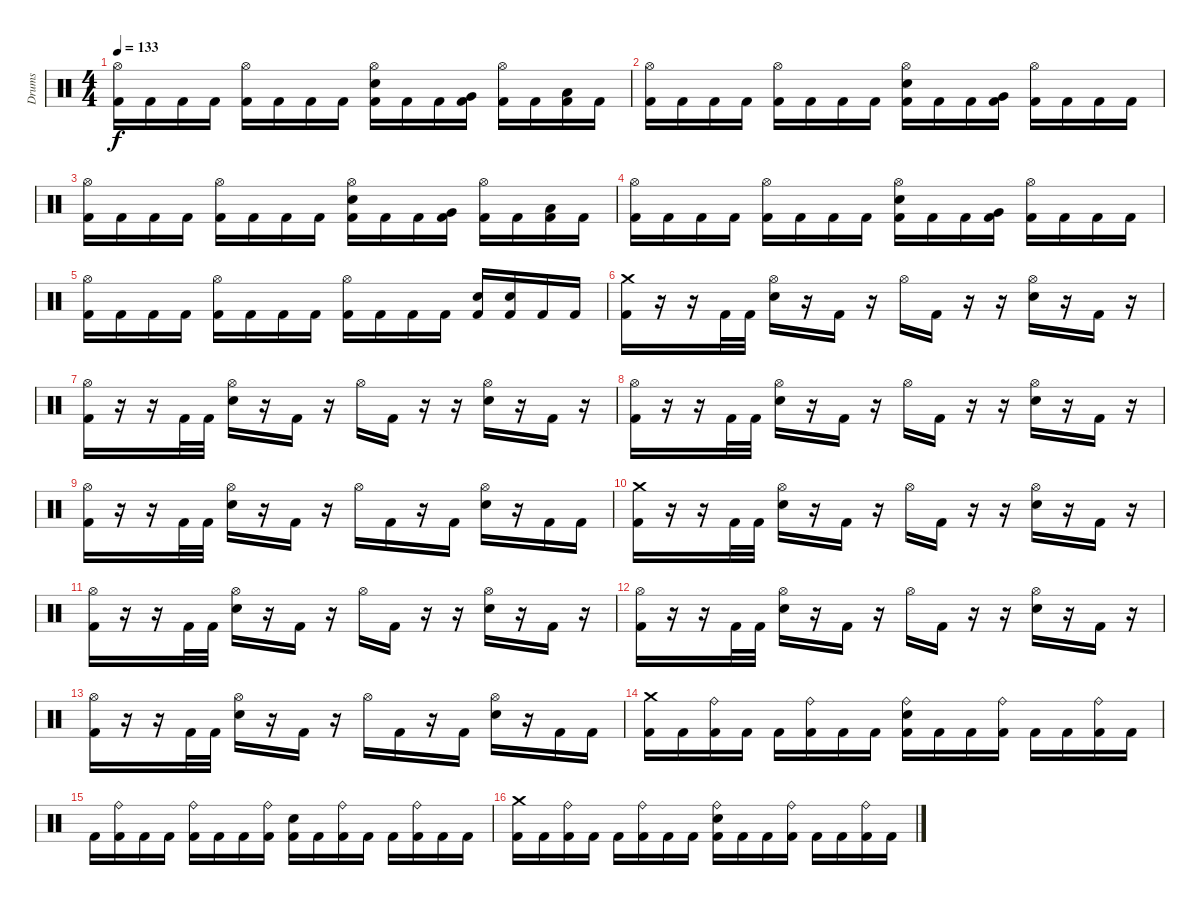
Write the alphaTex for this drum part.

\track ("Drums" "Drums") {instrument percussion}
\staff {score}
\articulation defaults
\ts (4 4)
\tempo 133
\clef neutral
\ks c
("Hi-Hat (open)" "Kick (hit) 2").16{dy f} "Kick (hit) 2".16 "Kick (hit) 2".16 "Kick (hit) 2".16 ("Hi-Hat (open)" "Kick (hit) 2").16 "Kick (hit) 2".16 "Kick (hit) 2".16 "Kick (hit) 2".16 ("Hi-Hat (open)" "Electric Snare (hit)" "Kick (hit) 2").16 "Kick (hit) 2".16 "Kick (hit) 2".16 ("Very Low Tom (hit)" "Kick (hit) 2").16 ("Hi-Hat (open)" "Kick (hit) 2").16 "Kick (hit) 2".16 ("Low Floor Tom (hit)" "Kick (hit) 2").16 "Kick (hit) 2".16 |
("Hi-Hat (open)" "Kick (hit) 2").16 "Kick (hit) 2".16 "Kick (hit) 2".16 "Kick (hit) 2".16 ("Hi-Hat (open)" "Kick (hit) 2").16 "Kick (hit) 2".16 "Kick (hit) 2".16 "Kick (hit) 2".16 ("Hi-Hat (open)" "Electric Snare (hit)" "Kick (hit) 2").16 "Kick (hit) 2".16 "Kick (hit) 2".16 ("Very Low Tom (hit)" "Kick (hit) 2").16 ("Hi-Hat (open)" "Kick (hit) 2").16 "Kick (hit) 2".16 "Kick (hit) 2".16 "Kick (hit) 2".16 |
("Hi-Hat (open)" "Kick (hit) 2").16 "Kick (hit) 2".16 "Kick (hit) 2".16 "Kick (hit) 2".16 ("Hi-Hat (open)" "Kick (hit) 2").16 "Kick (hit) 2".16 "Kick (hit) 2".16 "Kick (hit) 2".16 ("Hi-Hat (open)" "Electric Snare (hit)" "Kick (hit) 2").16 "Kick (hit) 2".16 "Kick (hit) 2".16 ("Very Low Tom (hit)" "Kick (hit) 2").16 ("Hi-Hat (open)" "Kick (hit) 2").16 "Kick (hit) 2".16 ("Low Floor Tom (hit)" "Kick (hit) 2").16 "Kick (hit) 2".16 |
("Hi-Hat (open)" "Kick (hit) 2").16 "Kick (hit) 2".16 "Kick (hit) 2".16 "Kick (hit) 2".16 ("Hi-Hat (open)" "Kick (hit) 2").16 "Kick (hit) 2".16 "Kick (hit) 2".16 "Kick (hit) 2".16 ("Hi-Hat (open)" "Electric Snare (hit)" "Kick (hit) 2").16 "Kick (hit) 2".16 "Kick (hit) 2".16 ("Very Low Tom (hit)" "Kick (hit) 2").16 ("Hi-Hat (open)" "Kick (hit) 2").16 "Kick (hit) 2".16 "Kick (hit) 2".16 "Kick (hit) 2".16 |
("Hi-Hat (open)" "Kick (hit) 2").16 "Kick (hit) 2".16 "Kick (hit) 2".16 "Kick (hit) 2".16 ("Hi-Hat (open)" "Kick (hit) 2").16 "Kick (hit) 2".16 "Kick (hit) 2".16 "Kick (hit) 2".16 ("Hi-Hat (open)" "Kick (hit) 2").16 "Kick (hit) 2".16 "Kick (hit) 2".16 "Kick (hit) 2".16 ("Electric Snare (hit)" "Kick (hit) 2").16 ("Electric Snare (hit)" "Kick (hit) 2").16 "Kick (hit) 2".16 "Kick (hit) 2".16 |
\section ("" "")
("Crash medium (hit)" "Kick (hit) 2").16 r.16 r.16 "Kick (hit) 2".32 "Kick (hit) 2".32 ("Hi-Hat (open)" "Electric Snare (hit)").16 r.16 "Kick (hit) 2".16 r.16 "Hi-Hat (open)".16 "Kick (hit) 2".16 r.16 r.16 ("Hi-Hat (open)" "Electric Snare (hit)").16 r.16 "Kick (hit) 2".16 r.16 |
("Hi-Hat (open)" "Kick (hit) 2").16 r.16 r.16 "Kick (hit) 2".32 "Kick (hit) 2".32 ("Hi-Hat (open)" "Electric Snare (hit)").16 r.16 "Kick (hit) 2".16 r.16 "Hi-Hat (open)".16 "Kick (hit) 2".16 r.16 r.16 ("Hi-Hat (open)" "Electric Snare (hit)").16 r.16 "Kick (hit) 2".16 r.16 |
("Hi-Hat (open)" "Kick (hit) 2").16 r.16 r.16 "Kick (hit) 2".32 "Kick (hit) 2".32 ("Hi-Hat (open)" "Electric Snare (hit)").16 r.16 "Kick (hit) 2".16 r.16 "Hi-Hat (open)".16 "Kick (hit) 2".16 r.16 r.16 ("Hi-Hat (open)" "Electric Snare (hit)").16 r.16 "Kick (hit) 2".16 r.16 |
("Hi-Hat (open)" "Kick (hit) 2").16 r.16 r.16 "Kick (hit) 2".32 "Kick (hit) 2".32 ("Hi-Hat (open)" "Electric Snare (hit)").16 r.16 "Kick (hit) 2".16 r.16 "Hi-Hat (open)".16 "Kick (hit) 2".16 r.16 "Kick (hit) 2".16 ("Hi-Hat (open)" "Electric Snare (hit)").16 r.16 "Kick (hit) 2".16 "Kick (hit) 2".16 |
("Crash medium (hit)" "Kick (hit) 2").16 r.16 r.16 "Kick (hit) 2".32 "Kick (hit) 2".32 ("Hi-Hat (open)" "Electric Snare (hit)").16 r.16 "Kick (hit) 2".16 r.16 "Hi-Hat (open)".16 "Kick (hit) 2".16 r.16 r.16 ("Hi-Hat (open)" "Electric Snare (hit)").16 r.16 "Kick (hit) 2".16 r.16 |
("Hi-Hat (open)" "Kick (hit) 2").16 r.16 r.16 "Kick (hit) 2".32 "Kick (hit) 2".32 ("Hi-Hat (open)" "Electric Snare (hit)").16 r.16 "Kick (hit) 2".16 r.16 "Hi-Hat (open)".16 "Kick (hit) 2".16 r.16 r.16 ("Hi-Hat (open)" "Electric Snare (hit)").16 r.16 "Kick (hit) 2".16 r.16 |
("Hi-Hat (open)" "Kick (hit) 2").16 r.16 r.16 "Kick (hit) 2".32 "Kick (hit) 2".32 ("Hi-Hat (open)" "Electric Snare (hit)").16 r.16 "Kick (hit) 2".16 r.16 "Hi-Hat (open)".16 "Kick (hit) 2".16 r.16 r.16 ("Hi-Hat (open)" "Electric Snare (hit)").16 r.16 "Kick (hit) 2".16 r.16 |
("Hi-Hat (open)" "Kick (hit) 2").16 r.16 r.16 "Kick (hit) 2".32 "Kick (hit) 2".32 ("Hi-Hat (open)" "Electric Snare (hit)").16 r.16 "Kick (hit) 2".16 r.16 "Hi-Hat (open)".16 "Kick (hit) 2".16 r.16 "Kick (hit) 2".16 ("Hi-Hat (open)" "Electric Snare (hit)").16 r.16 "Kick (hit) 2".16 "Kick (hit) 2".16 |
\section ("" "")
("Crash medium (hit)" "Kick (hit) 2").16 "Kick (hit) 2".16 ("Ride (bell)" "Kick (hit) 2").16 "Kick (hit) 2".16 "Kick (hit) 2".16 ("Ride (bell)" "Kick (hit) 2").16 "Kick (hit) 2".16 "Kick (hit) 2".16 ("Ride (bell)" "Electric Snare (hit)" "Kick (hit) 2").16 "Kick (hit) 2".16 "Kick (hit) 2".16 ("Ride (bell)" "Kick (hit) 2").16 "Kick (hit) 2".16 "Kick (hit) 2".16 ("Ride (bell)" "Kick (hit) 2").16 "Kick (hit) 2".16 |
"Kick (hit) 2".16 ("Ride (bell)" "Kick (hit) 2").16 "Kick (hit) 2".16 "Kick (hit) 2".16 ("Ride (bell)" "Kick (hit) 2").16 "Kick (hit) 2".16 "Kick (hit) 2".16 ("Ride (bell)" "Kick (hit) 2").16 ("Electric Snare (hit)" "Kick (hit) 2").16 "Kick (hit) 2".16 ("Ride (bell)" "Kick (hit) 2").16 "Kick (hit) 2".16 "Kick (hit) 2".16 ("Ride (bell)" "Kick (hit) 2").16 "Kick (hit) 2".16 "Kick (hit) 2".16 |
("Crash medium (hit)" "Kick (hit) 2").16 "Kick (hit) 2".16 ("Ride (bell)" "Kick (hit) 2").16 "Kick (hit) 2".16 "Kick (hit) 2".16 ("Ride (bell)" "Kick (hit) 2").16 "Kick (hit) 2".16 "Kick (hit) 2".16 ("Ride (bell)" "Electric Snare (hit)" "Kick (hit) 2").16 "Kick (hit) 2".16 "Kick (hit) 2".16 ("Ride (bell)" "Kick (hit) 2").16 "Kick (hit) 2".16 "Kick (hit) 2".16 ("Ride (bell)" "Kick (hit) 2").16 "Kick (hit) 2".16
